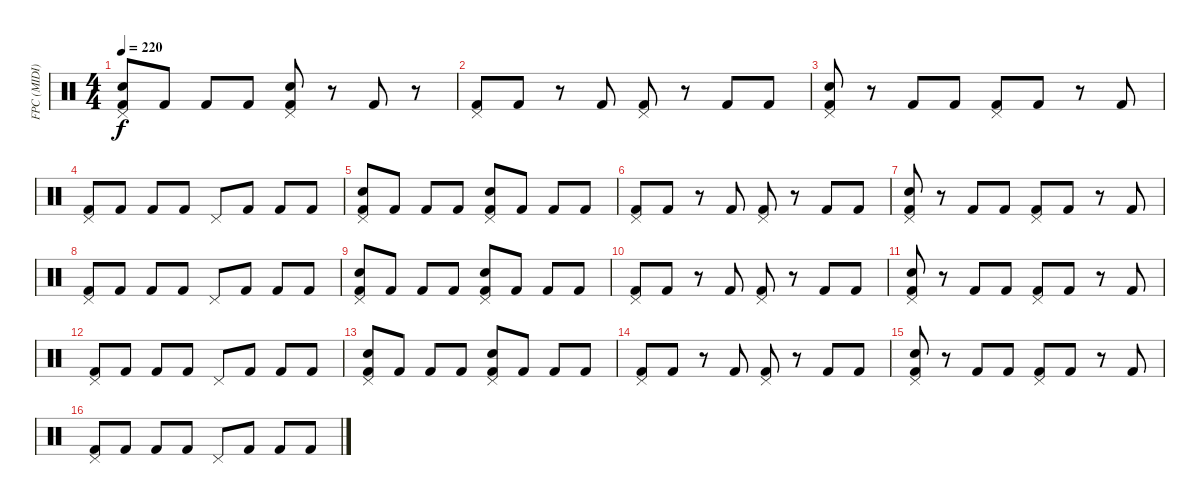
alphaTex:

\track ("FPC (MIDI)" "FPC (MIDI)") {instrument percussion}
\staff {score}
\articulation defaults
\ts (4 4)
\tempo 220
\clef neutral
\ks c
("Kick (hit) 2" "Snare (hit) 2" "Pedal Hi-Hat (hit)").8{dy f} "Kick (hit) 2".8 "Kick (hit) 2".8 "Kick (hit) 2".8 ("Snare (hit) 2" "Pedal Hi-Hat (hit)" "Kick (hit) 2").8 r.8 "Kick (hit) 2".8 r.8 |
("Kick (hit) 2" "Pedal Hi-Hat (hit)").8 "Kick (hit) 2".8 r.8 "Kick (hit) 2".8 ("Pedal Hi-Hat (hit)" "Kick (hit) 2").8 r.8 "Kick (hit) 2".8 "Kick (hit) 2".8 |
("Snare (hit) 2" "Pedal Hi-Hat (hit)" "Kick (hit) 2").8 r.8 "Kick (hit) 2".8 "Kick (hit) 2".8 ("Kick (hit) 2" "Pedal Hi-Hat (hit)").8 "Kick (hit) 2".8 r.8 "Kick (hit) 2".8 |
("Pedal Hi-Hat (hit)" "Kick (hit) 2").8 "Kick (hit) 2".8 "Kick (hit) 2".8 "Kick (hit) 2".8 "Pedal Hi-Hat (hit)".8 "Kick (hit) 2".8 "Kick (hit) 2".8 "Kick (hit) 2".8 |
("Pedal Hi-Hat (hit)" "Snare (hit) 2" "Kick (hit) 2").8 "Kick (hit) 2".8 "Kick (hit) 2".8 "Kick (hit) 2".8 ("Snare (hit) 2" "Pedal Hi-Hat (hit)" "Kick (hit) 2").8 "Kick (hit) 2".8 "Kick (hit) 2".8 "Kick (hit) 2".8 |
("Kick (hit) 2" "Pedal Hi-Hat (hit)").8 "Kick (hit) 2".8 r.8 "Kick (hit) 2".8 ("Pedal Hi-Hat (hit)" "Kick (hit) 2").8 r.8 "Kick (hit) 2".8 "Kick (hit) 2".8 |
("Snare (hit) 2" "Pedal Hi-Hat (hit)" "Kick (hit) 2").8 r.8 "Kick (hit) 2".8 "Kick (hit) 2".8 ("Kick (hit) 2" "Pedal Hi-Hat (hit)").8 "Kick (hit) 2".8 r.8 "Kick (hit) 2".8 |
("Pedal Hi-Hat (hit)" "Kick (hit) 2").8 "Kick (hit) 2".8 "Kick (hit) 2".8 "Kick (hit) 2".8 "Pedal Hi-Hat (hit)".8 "Kick (hit) 2".8 "Kick (hit) 2".8 "Kick (hit) 2".8 |
("Kick (hit) 2" "Snare (hit) 2" "Pedal Hi-Hat (hit)").8 "Kick (hit) 2".8 "Kick (hit) 2".8 "Kick (hit) 2".8 ("Kick (hit) 2" "Pedal Hi-Hat (hit)" "Snare (hit) 2").8 "Kick (hit) 2".8 "Kick (hit) 2".8 "Kick (hit) 2".8 |
("Pedal Hi-Hat (hit)" "Kick (hit) 2").8 "Kick (hit) 2".8 r.8 "Kick (hit) 2".8 ("Kick (hit) 2" "Pedal Hi-Hat (hit)").8 r.8 "Kick (hit) 2".8 "Kick (hit) 2".8 |
("Kick (hit) 2" "Pedal Hi-Hat (hit)" "Snare (hit) 2").8 r.8 "Kick (hit) 2".8 "Kick (hit) 2".8 ("Pedal Hi-Hat (hit)" "Kick (hit) 2").8 "Kick (hit) 2".8 r.8 "Kick (hit) 2".8 |
("Kick (hit) 2" "Pedal Hi-Hat (hit)").8 "Kick (hit) 2".8 "Kick (hit) 2".8 "Kick (hit) 2".8 "Pedal Hi-Hat (hit)".8 "Kick (hit) 2".8 "Kick (hit) 2".8 "Kick (hit) 2".8 |
("Kick (hit) 2" "Snare (hit) 2" "Pedal Hi-Hat (hit)").8 "Kick (hit) 2".8 "Kick (hit) 2".8 "Kick (hit) 2".8 ("Kick (hit) 2" "Pedal Hi-Hat (hit)" "Snare (hit) 2").8 "Kick (hit) 2".8 "Kick (hit) 2".8 "Kick (hit) 2".8 |
("Pedal Hi-Hat (hit)" "Kick (hit) 2").8 "Kick (hit) 2".8 r.8 "Kick (hit) 2".8 ("Kick (hit) 2" "Pedal Hi-Hat (hit)").8 r.8 "Kick (hit) 2".8 "Kick (hit) 2".8 |
("Kick (hit) 2" "Pedal Hi-Hat (hit)" "Snare (hit) 2").8 r.8 "Kick (hit) 2".8 "Kick (hit) 2".8 ("Pedal Hi-Hat (hit)" "Kick (hit) 2").8 "Kick (hit) 2".8 r.8 "Kick (hit) 2".8 |
("Kick (hit) 2" "Pedal Hi-Hat (hit)").8 "Kick (hit) 2".8 "Kick (hit) 2".8 "Kick (hit) 2".8 "Pedal Hi-Hat (hit)".8 "Kick (hit) 2".8 "Kick (hit) 2".8 "Kick (hit) 2".8
